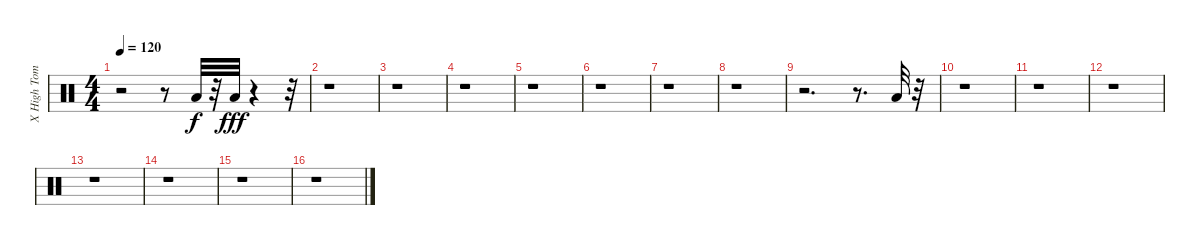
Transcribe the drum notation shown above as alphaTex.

\track ("X High Tom          " "X High Tom") {instrument percussion}
\staff {score}
\articulation defaults
\ts (4 4)
\tempo 120
\clef neutral
\ks c
r.2{dy fff} r.8 "Low Tom (hit)".32{dy f} r.32 "Low Tom (hit)".32{dy fff} r.4 r.32 |
r.1 |
r.1 |
r.1 |
r.1 |
r.1 |
r.1 |
r.1 |
r.2{d} r.8{d} "Low Tom (hit)".32 r.32 |
r.1 |
r.1 |
r.1 |
r.1 |
r.1 |
r.1 |
r.1
